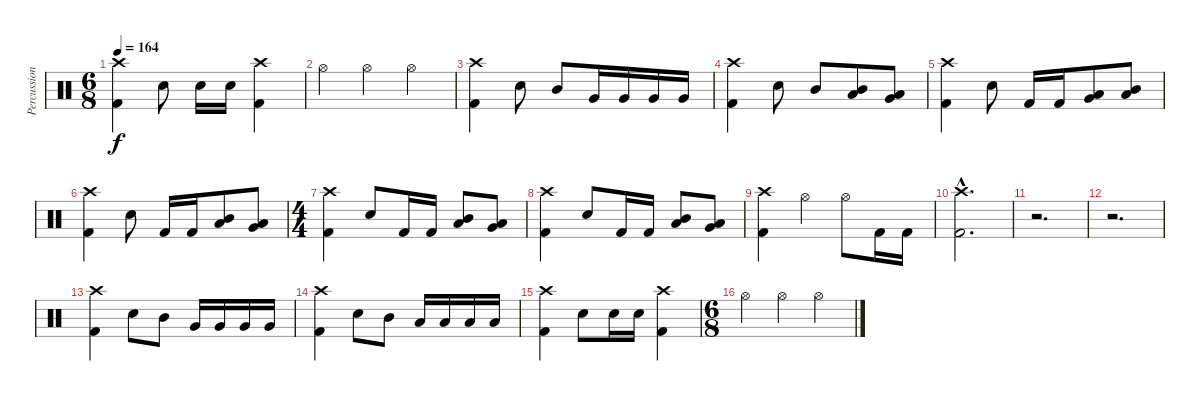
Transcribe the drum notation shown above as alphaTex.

\track ("Percussion" "Percussion") {instrument percussion}
\staff {score}
\articulation defaults
\ts (6 8)
\tempo 164
\clef neutral
\ks c
("Crash high (hit)" "Kick (hit) 2").4{dy f} "Snare (hit) 2".8 "Snare (hit) 2".16 "Snare (hit) 2".16 ("Crash high (hit)" "Kick (hit) 2").4 |
"Hi-Hat (open)".4 "Hi-Hat (open)".4 "Hi-Hat (open)".4 |
("Crash high (hit)" "Kick (hit) 2").4 "Snare (hit) 2".8 "Mid Tom (hit)".8 "Very Low Tom (hit)".16 "Very Low Tom (hit)".16 "Very Low Tom (hit)".16 "Very Low Tom (hit)".16 |
("Crash high (hit)" "Kick (hit) 2").4 "Snare (hit) 2".8 "Mid Tom (hit)".8 ("Mid Tom (hit)" "Low Tom (hit)").8 ("Low Tom (hit)" "Very Low Tom (hit)").8 |
("Crash high (hit)" "Kick (hit) 2").4 "Snare (hit) 2".8 "Kick (hit) 2".16 "Kick (hit) 2".16 ("Low Tom (hit)" "Very Low Tom (hit)").8 ("Mid Tom (hit)" "Low Tom (hit)").8 |
("Crash high (hit)" "Kick (hit) 2").4 "Snare (hit) 2".8 "Kick (hit) 2".16 "Kick (hit) 2".16 ("Mid Tom (hit)" "Low Tom (hit)").8 ("Low Tom (hit)" "Very Low Tom (hit)").8 |
\ts (4 4)
("Crash high (hit)" "Kick (hit) 2").4 "Snare (hit) 2".8 "Kick (hit) 2".16 "Kick (hit) 2".16 ("Mid Tom (hit)" "Low Tom (hit)").8 ("Low Tom (hit)" "Very Low Tom (hit)").8 |
("Crash high (hit)" "Kick (hit) 2").4 "Snare (hit) 2".8 "Kick (hit) 2".16 "Kick (hit) 2".16 ("Mid Tom (hit)" "Low Tom (hit)").8 ("Low Tom (hit)" "Very Low Tom (hit)").8 |
("Crash high (hit)" "Kick (hit) 2").4 "Hi-Hat (open)".4 "Hi-Hat (open)".8 "Kick (hit) 2".16 "Kick (hit) 2".16 |
("Crash high (hit)"{hac} "Kick (hit) 2"{hac}).2{d} |
r.2{d} |
r.2{d} |
("Crash high (hit)" "Kick (hit) 2").4 "Snare (hit) 2".8 "Mid Tom (hit)".8 "Very Low Tom (hit)".16 "Very Low Tom (hit)".16 "Very Low Tom (hit)".16 "Very Low Tom (hit)".16 |
("Crash high (hit)" "Kick (hit) 2").4 "Snare (hit) 2".8 "Mid Tom (hit)".8 "Low Tom (hit)".16 "Low Tom (hit)".16 "Low Tom (hit)".16 "Low Tom (hit)".16 |
("Crash high (hit)" "Kick (hit) 2").4 "Snare (hit) 2".8 "Snare (hit) 2".16 "Snare (hit) 2".16 ("Crash high (hit)" "Kick (hit) 2").4 |
\ts (6 8)
"Hi-Hat (open)".4 "Hi-Hat (open)".4 "Hi-Hat (open)".4
